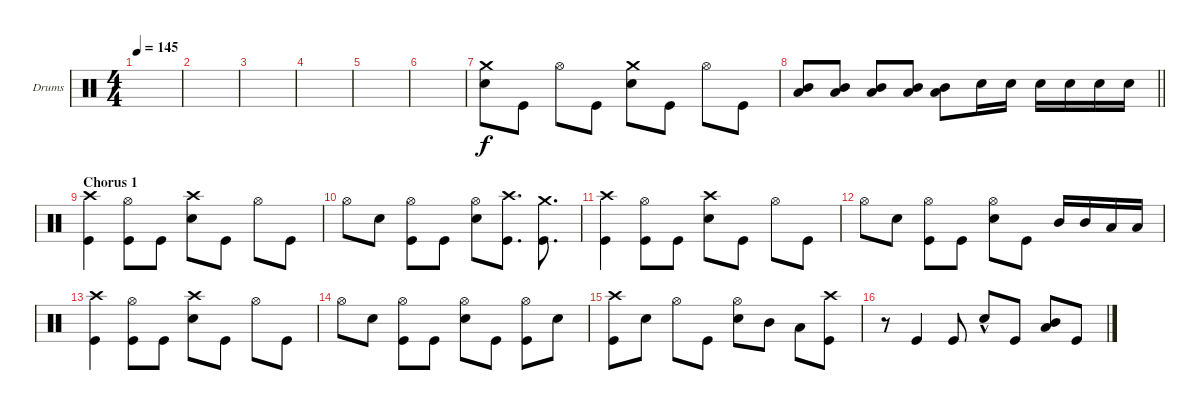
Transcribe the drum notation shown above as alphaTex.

\bracketExtendMode groupsimilarinstruments
\firstSystemTrackNameOrientation horizontal
\otherSystemsTrackNameOrientation horizontal
\track ("drums (Anton Zulganov)" "Drums") {instrument percussion}
\staff {score}
\articulation defaults
\ts (4 4)
\tempo 145
\clef neutral
\ks aminor
|
|
|
|
|
|
("Snare (hit) 2" "Crash medium (hit)").8 "Kick (hit)".8 "Hi-Hat (open)".8 "Kick (hit)".8 ("Snare (hit) 2" "Crash medium (hit)").8 "Kick (hit)".8 "Hi-Hat (open)".8 "Kick (hit)".8 |
\barLineRight lightlight
("Mid Tom (hit)" "Low Tom (hit)").8 ("Mid Tom (hit)" "Low Tom (hit)").8 ("Mid Tom (hit)" "Low Tom (hit)").8 ("Mid Tom (hit)" "Low Tom (hit)").8 ("Mid Tom (hit)" "Low Tom (hit)").8 "Snare (hit) 2".16 "Snare (hit) 2".16 "Snare (hit) 2".16 "Snare (hit) 2".16 "Snare (hit) 2".16 "Snare (hit) 2".16 |
\section ("" "Chorus 1")
("Kick (hit)" "Crash high (hit)").4 ("Hi-Hat (open)" "Kick (hit)").8 "Kick (hit)".8 ("Snare (hit) 2" "Crash high (hit)").8 "Kick (hit)".8 "Hi-Hat (open)".8 "Kick (hit)".8 |
"Hi-Hat (open)".8 "Snare (hit) 2".8 ("Hi-Hat (open)" "Kick (hit)").8 "Kick (hit)".8 ("Hi-Hat (open)" "Snare (hit) 2").8 ("Kick (hit)" "Crash high (hit)").8{d} ("Kick (hit)" "Crash medium (hit)").8{d} |
("Kick (hit)" "Crash high (hit)").4 ("Hi-Hat (open)" "Kick (hit)").8 "Kick (hit)".8 ("Snare (hit) 2" "Crash high (hit)").8 "Kick (hit)".8 "Hi-Hat (open)".8 "Kick (hit)".8 |
"Hi-Hat (open)".8 "Snare (hit) 2".8 ("Hi-Hat (open)" "Kick (hit)").8 "Kick (hit)".8 ("Hi-Hat (open)" "Snare (hit) 2").8 "Kick (hit)".8 "Mid Tom (hit)".16 "Mid Tom (hit)".16 "Low Tom (hit)".16 "Low Tom (hit)".16 |
("Kick (hit)" "Crash high (hit)").4 ("Hi-Hat (open)" "Kick (hit)").8 "Kick (hit)".8 ("Snare (hit) 2" "Crash high (hit)").8 "Kick (hit)".8 "Hi-Hat (open)".8 "Kick (hit)".8 |
"Hi-Hat (open)".8 "Snare (hit) 2".8 ("Hi-Hat (open)" "Kick (hit)").8 "Kick (hit)".8 ("Hi-Hat (open)" "Snare (hit) 2").8 "Kick (hit)".8 ("Hi-Hat (open)" "Kick (hit)").8 "Snare (hit) 2".8 |
("Kick (hit)" "Crash high (hit)").8 "Snare (hit) 2".8 "Hi-Hat (open)".8 "Kick (hit)".8 ("Hi-Hat (open)" "Snare (hit) 2").8 "Mid Tom (hit)".8 "Low Tom (hit)".8 ("Crash high (hit)" "Kick (hit)").8 |
r.8 "Kick (hit)".4 "Kick (hit)".8 "Snare (hit) 2"{hac}.8 "Kick (hit)".8 ("Low Tom (hit)" "Mid Tom (hit)").8 "Kick (hit)".8
